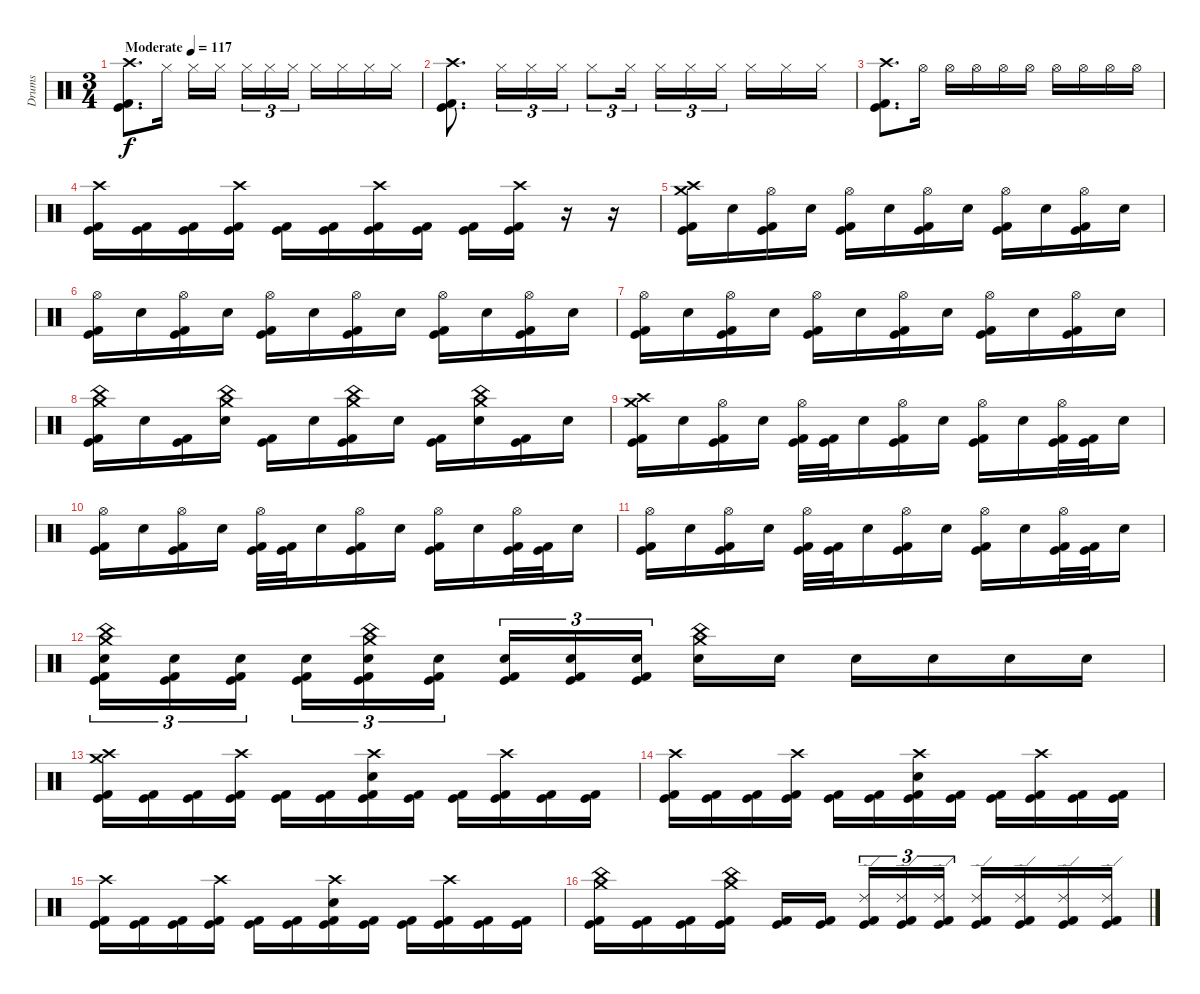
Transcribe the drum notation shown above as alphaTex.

\track ("Drums" "Drums") {instrument percussion}
\staff {score}
\articulation defaults
\ts (3 4)
\tempo (117 "Moderate")
\clef neutral
\ks c
("Crash high (hit)" "Kick (hit)" "Kick (hit) 2").8{d dy f} "Hi-Hat (closed)".16 "Hi-Hat (closed)".16 "Hi-Hat (closed)".16{beam splitsecondary} "Hi-Hat (closed)".16{tu (3 2)} "Hi-Hat (closed)".16{tu (3 2)} "Hi-Hat (closed)".16{tu (3 2)} "Hi-Hat (closed)".16 "Hi-Hat (closed)".16 "Hi-Hat (closed)".16 "Hi-Hat (closed)".16 |
("Crash high (hit)" "Kick (hit)" "Kick (hit) 2").8{d} "Hi-Hat (closed)".16{tu (3 2)} "Hi-Hat (closed)".16{tu (3 2)} "Hi-Hat (closed)".16{tu (3 2)} "Hi-Hat (closed)".8{tu (3 2)} "Hi-Hat (closed)".16{tu (3 2) beam splitsecondary} "Hi-Hat (closed)".16{tu (3 2)} "Hi-Hat (closed)".16{tu (3 2)} "Hi-Hat (closed)".16{tu (3 2) beam splitsecondary} "Hi-Hat (closed)".16 "Hi-Hat (closed)".16 "Hi-Hat (closed)".16 |
("Crash high (hit)" "Kick (hit)" "Kick (hit) 2").8{d} "Hi-Hat (open)".16 "Hi-Hat (open)".16 "Hi-Hat (open)".16 "Hi-Hat (open)".16 "Hi-Hat (open)".16 "Hi-Hat (open)".16 "Hi-Hat (open)".16 "Hi-Hat (open)".16 "Hi-Hat (open)".16 |
("Crash high (hit)" "Kick (hit)" "Kick (hit) 2").16 ("Kick (hit)" "Kick (hit) 2").16 ("Kick (hit)" "Kick (hit) 2").16 ("Crash high (hit)" "Kick (hit)" "Kick (hit) 2").16 ("Kick (hit)" "Kick (hit) 2").16 ("Kick (hit)" "Kick (hit) 2").16 ("Crash high (hit)" "Kick (hit)" "Kick (hit) 2").16 ("Kick (hit)" "Kick (hit) 2").16 ("Kick (hit)" "Kick (hit) 2").16 ("Crash high (hit)" "Kick (hit)" "Kick (hit) 2").16 r.16 r.16 |
("Crash medium (hit)" "Crash high (hit)" "Kick (hit)" "Kick (hit) 2").16 "Electric Snare (hit)".16 ("Hi-Hat (open)" "Kick (hit)" "Kick (hit) 2").16 "Electric Snare (hit)".16 ("Hi-Hat (open)" "Kick (hit)" "Kick (hit) 2").16 "Electric Snare (hit)".16 ("Hi-Hat (open)" "Kick (hit)" "Kick (hit) 2").16 "Electric Snare (hit)".16 ("Hi-Hat (open)" "Kick (hit)" "Kick (hit) 2").16 "Electric Snare (hit)".16 ("Hi-Hat (open)" "Kick (hit)" "Kick (hit) 2").16 "Electric Snare (hit)".16 |
("Hi-Hat (open)" "Kick (hit)" "Kick (hit) 2").16 "Electric Snare (hit)".16 ("Hi-Hat (open)" "Kick (hit)" "Kick (hit) 2").16 "Electric Snare (hit)".16 ("Hi-Hat (open)" "Kick (hit)" "Kick (hit) 2").16 "Electric Snare (hit)".16 ("Hi-Hat (open)" "Kick (hit)" "Kick (hit) 2").16 "Electric Snare (hit)".16 ("Hi-Hat (open)" "Kick (hit)" "Kick (hit) 2").16 "Electric Snare (hit)".16 ("Hi-Hat (open)" "Kick (hit)" "Kick (hit) 2").16 "Electric Snare (hit)".16 |
("Hi-Hat (open)" "Kick (hit)" "Kick (hit) 2").16 "Electric Snare (hit)".16 ("Hi-Hat (open)" "Kick (hit)" "Kick (hit) 2").16 "Electric Snare (hit)".16 ("Hi-Hat (open)" "Kick (hit)" "Kick (hit) 2").16 "Electric Snare (hit)".16 ("Hi-Hat (open)" "Kick (hit)" "Kick (hit) 2").16 "Electric Snare (hit)".16 ("Hi-Hat (open)" "Kick (hit)" "Kick (hit) 2").16 "Electric Snare (hit)".16 ("Hi-Hat (open)" "Kick (hit)" "Kick (hit) 2").16 "Electric Snare (hit)".16 |
("Crash medium (hit)" "China (hit)" "Kick (hit)" "Kick (hit) 2").16 "Electric Snare (hit)".16 ("Kick (hit)" "Kick (hit) 2").16 ("Crash medium (hit)" "China (hit)" "Electric Snare (hit)").16 ("Kick (hit)" "Kick (hit) 2").16 "Electric Snare (hit)".16 ("Crash medium (hit)" "China (hit)" "Kick (hit)" "Kick (hit) 2").16 "Electric Snare (hit)".16 ("Kick (hit)" "Kick (hit) 2").16 ("Crash medium (hit)" "China (hit)" "Electric Snare (hit)").16 ("Kick (hit)" "Kick (hit) 2").16 "Electric Snare (hit)".16 |
("Crash medium (hit)" "Crash high (hit)" "Kick (hit)" "Kick (hit) 2").16 "Electric Snare (hit)".16 ("Hi-Hat (open)" "Kick (hit)" "Kick (hit) 2").16 "Electric Snare (hit)".16 ("Hi-Hat (open)" "Kick (hit)" "Kick (hit) 2").32 ("Kick (hit)" "Kick (hit) 2").32 "Electric Snare (hit)".16 ("Hi-Hat (open)" "Kick (hit)" "Kick (hit) 2").16 "Electric Snare (hit)".16 ("Hi-Hat (open)" "Kick (hit)" "Kick (hit) 2").16 "Electric Snare (hit)".16 ("Hi-Hat (open)" "Kick (hit)" "Kick (hit) 2").32 ("Kick (hit)" "Kick (hit) 2").32 "Electric Snare (hit)".16 |
("Hi-Hat (open)" "Kick (hit)" "Kick (hit) 2").16 "Electric Snare (hit)".16 ("Hi-Hat (open)" "Kick (hit)" "Kick (hit) 2").16 "Electric Snare (hit)".16 ("Hi-Hat (open)" "Kick (hit)" "Kick (hit) 2").32 ("Kick (hit)" "Kick (hit) 2").32 "Electric Snare (hit)".16 ("Hi-Hat (open)" "Kick (hit)" "Kick (hit) 2").16 "Electric Snare (hit)".16 ("Hi-Hat (open)" "Kick (hit)" "Kick (hit) 2").16 "Electric Snare (hit)".16 ("Hi-Hat (open)" "Kick (hit)" "Kick (hit) 2").32 ("Kick (hit)" "Kick (hit) 2").32 "Electric Snare (hit)".16 |
("Hi-Hat (open)" "Kick (hit)" "Kick (hit) 2").16 "Electric Snare (hit)".16 ("Hi-Hat (open)" "Kick (hit)" "Kick (hit) 2").16 "Electric Snare (hit)".16 ("Hi-Hat (open)" "Kick (hit)" "Kick (hit) 2").32 ("Kick (hit)" "Kick (hit) 2").32 "Electric Snare (hit)".16 ("Hi-Hat (open)" "Kick (hit)" "Kick (hit) 2").16 "Electric Snare (hit)".16 ("Hi-Hat (open)" "Kick (hit)" "Kick (hit) 2").16 "Electric Snare (hit)".16 ("Hi-Hat (open)" "Kick (hit)" "Kick (hit) 2").32 ("Kick (hit)" "Kick (hit) 2").32 "Electric Snare (hit)".16 |
("Crash medium (hit)" "China (hit)" "Electric Snare (hit)" "Kick (hit)" "Kick (hit) 2").16{tu (3 2)} ("Electric Snare (hit)" "Kick (hit)" "Kick (hit) 2").16{tu (3 2)} ("Electric Snare (hit)" "Kick (hit)" "Kick (hit) 2").16{tu (3 2) beam splitsecondary} ("Electric Snare (hit)" "Kick (hit)" "Kick (hit) 2").16{tu (3 2)} ("Crash medium (hit)" "China (hit)" "Electric Snare (hit)" "Kick (hit)" "Kick (hit) 2").16{tu (3 2)} ("Electric Snare (hit)" "Kick (hit)" "Kick (hit) 2").16{tu (3 2)} ("Electric Snare (hit)" "Kick (hit)" "Kick (hit) 2").16{tu (3 2)} ("Electric Snare (hit)" "Kick (hit)" "Kick (hit) 2").16{tu (3 2)} ("Electric Snare (hit)" "Kick (hit)" "Kick (hit) 2").16{tu (3 2) beam splitsecondary} ("Crash medium (hit)" "China (hit)" "Electric Snare (hit)").16 "Electric Snare (hit)".16 "Electric Snare (hit)".16 "Electric Snare (hit)".16 "Electric Snare (hit)".16 "Electric Snare (hit)".16 |
("Crash medium (hit)" "Crash high (hit)" "Kick (hit)" "Kick (hit) 2").16 ("Kick (hit)" "Kick (hit) 2").16 ("Kick (hit)" "Kick (hit) 2").16 ("Crash high (hit)" "Kick (hit)" "Kick (hit) 2").16 ("Kick (hit)" "Kick (hit) 2").16 ("Kick (hit)" "Kick (hit) 2").16 ("Crash high (hit)" "Electric Snare (hit)" "Kick (hit)" "Kick (hit) 2").16 ("Kick (hit)" "Kick (hit) 2").16 ("Kick (hit)" "Kick (hit) 2").16 ("Crash high (hit)" "Kick (hit)" "Kick (hit) 2").16 ("Kick (hit)" "Kick (hit) 2").16 ("Kick (hit)" "Kick (hit) 2").16 |
("Crash high (hit)" "Kick (hit)" "Kick (hit) 2").16 ("Kick (hit)" "Kick (hit) 2").16 ("Kick (hit)" "Kick (hit) 2").16 ("Crash high (hit)" "Kick (hit)" "Kick (hit) 2").16 ("Kick (hit)" "Kick (hit) 2").16 ("Kick (hit)" "Kick (hit) 2").16 ("Crash high (hit)" "Electric Snare (hit)" "Kick (hit)" "Kick (hit) 2").16 ("Kick (hit)" "Kick (hit) 2").16 ("Kick (hit)" "Kick (hit) 2").16 ("Crash high (hit)" "Kick (hit)" "Kick (hit) 2").16 ("Kick (hit)" "Kick (hit) 2").16 ("Kick (hit)" "Kick (hit) 2").16 |
("Crash high (hit)" "Kick (hit)" "Kick (hit) 2").16 ("Kick (hit)" "Kick (hit) 2").16 ("Kick (hit)" "Kick (hit) 2").16 ("Crash high (hit)" "Kick (hit)" "Kick (hit) 2").16 ("Kick (hit)" "Kick (hit) 2").16 ("Kick (hit)" "Kick (hit) 2").16 ("Crash high (hit)" "Electric Snare (hit)" "Kick (hit)" "Kick (hit) 2").16 ("Kick (hit)" "Kick (hit) 2").16 ("Kick (hit)" "Kick (hit) 2").16 ("Crash high (hit)" "Kick (hit)" "Kick (hit) 2").16 ("Kick (hit)" "Kick (hit) 2").16 ("Kick (hit)" "Kick (hit) 2").16 |
("Crash medium (hit)" "China (hit)" "Kick (hit)" "Kick (hit) 2").16 ("Kick (hit)" "Kick (hit) 2").16 ("Kick (hit)" "Kick (hit) 2").16 ("Crash medium (hit)" "China (hit)" "Kick (hit)" "Kick (hit) 2").16 ("Kick (hit)" "Kick (hit) 2").16 ("Kick (hit)" "Kick (hit) 2").16{beam splitsecondary} ("Ride (edge) 2" "Kick (hit)" "Kick (hit) 2").16{tu (3 2)} ("Ride (edge) 2" "Kick (hit)" "Kick (hit) 2").16{tu (3 2)} ("Ride (edge) 2" "Kick (hit)" "Kick (hit) 2").16{tu (3 2)} ("Ride (edge) 2" "Kick (hit)" "Kick (hit) 2").16 ("Ride (edge) 2" "Kick (hit)" "Kick (hit) 2").16 ("Ride (edge) 2" "Kick (hit)" "Kick (hit) 2").16 ("Ride (edge) 2" "Kick (hit)" "Kick (hit) 2").16
